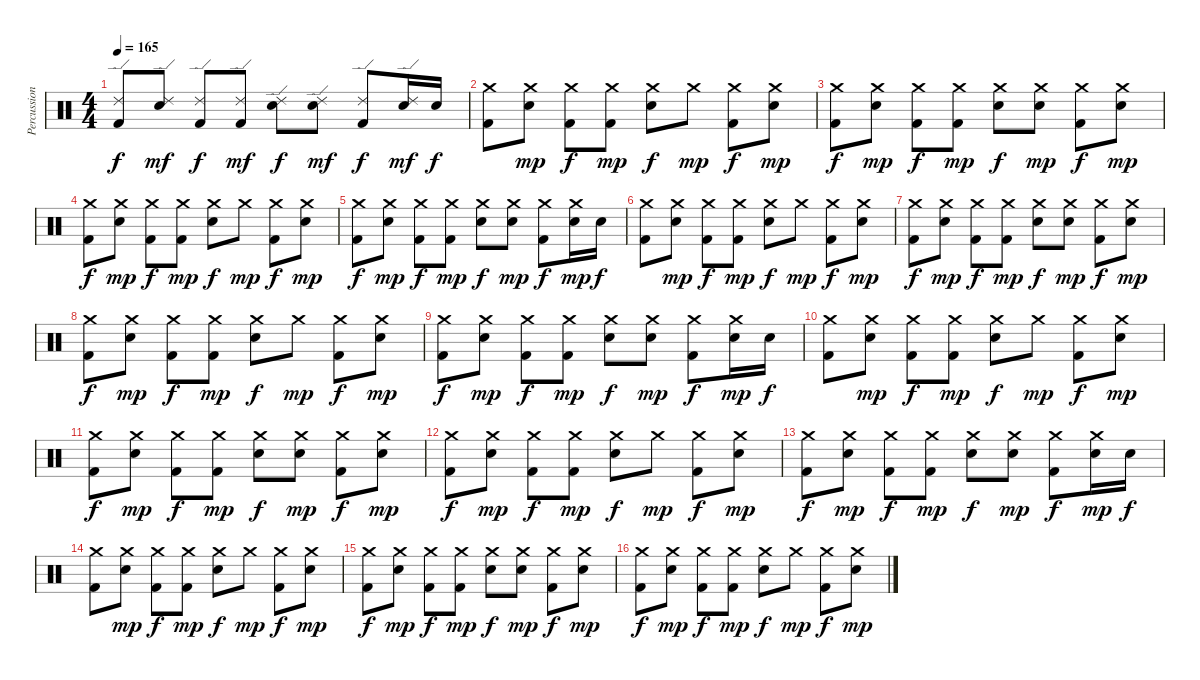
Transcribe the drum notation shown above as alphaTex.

\track ("Percussion" "Percussion") {instrument percussion}
\staff {score}
\articulation defaults
\ts (4 4)
\tempo 165
\clef neutral
\ks c
("Ride (edge) 2" "Kick (hit) 2").8{dy f} ("Ride (edge) 2" "Snare (hit) 2").8{dy mf} ("Ride (edge) 2" "Kick (hit) 2").8{dy f} ("Ride (edge) 2" "Kick (hit) 2").8{dy mf} ("Ride (edge) 2" "Snare (hit) 2").8{dy f} ("Ride (edge) 2" "Snare (hit) 2").8{dy mf} ("Ride (edge) 2" "Kick (hit) 2").8{dy f} ("Ride (edge) 2" "Snare (hit) 2").16{dy mf} "Snare (hit) 2".16{dy f} |
("Crash medium (hit)" "Kick (hit) 2").8 ("Crash medium (hit)" "Snare (hit) 2").8{dy mp} ("Crash medium (hit)" "Kick (hit) 2").8{dy f} ("Crash medium (hit)" "Kick (hit) 2").8{dy mp} ("Crash medium (hit)" "Snare (hit) 2").8{dy f} "Crash medium (hit)".8{dy mp} ("Crash medium (hit)" "Kick (hit) 2").8{dy f} ("Crash medium (hit)" "Snare (hit) 2").8{dy mp} |
("Crash medium (hit)" "Kick (hit) 2").8{dy f} ("Crash medium (hit)" "Snare (hit) 2").8{dy mp} ("Crash medium (hit)" "Kick (hit) 2").8{dy f} ("Crash medium (hit)" "Kick (hit) 2").8{dy mp} ("Crash medium (hit)" "Snare (hit) 2").8{dy f} ("Crash medium (hit)" "Snare (hit) 2").8{dy mp} ("Crash medium (hit)" "Kick (hit) 2").8{dy f} ("Crash medium (hit)" "Snare (hit) 2").8{dy mp} |
("Crash medium (hit)" "Kick (hit) 2").8{dy f} ("Crash medium (hit)" "Snare (hit) 2").8{dy mp} ("Crash medium (hit)" "Kick (hit) 2").8{dy f} ("Crash medium (hit)" "Kick (hit) 2").8{dy mp} ("Crash medium (hit)" "Snare (hit) 2").8{dy f} "Crash medium (hit)".8{dy mp} ("Crash medium (hit)" "Kick (hit) 2").8{dy f} ("Crash medium (hit)" "Snare (hit) 2").8{dy mp} |
("Crash medium (hit)" "Kick (hit) 2").8{dy f} ("Crash medium (hit)" "Snare (hit) 2").8{dy mp} ("Crash medium (hit)" "Kick (hit) 2").8{dy f} ("Crash medium (hit)" "Kick (hit) 2").8{dy mp} ("Crash medium (hit)" "Snare (hit) 2").8{dy f} ("Crash medium (hit)" "Snare (hit) 2").8{dy mp} ("Crash medium (hit)" "Kick (hit) 2").8{dy f} ("Crash medium (hit)" "Snare (hit) 2").16{dy mp} "Snare (hit) 2".16{dy f} |
("Crash medium (hit)" "Kick (hit) 2").8 ("Crash medium (hit)" "Snare (hit) 2").8{dy mp} ("Crash medium (hit)" "Kick (hit) 2").8{dy f} ("Crash medium (hit)" "Kick (hit) 2").8{dy mp} ("Crash medium (hit)" "Snare (hit) 2").8{dy f} "Crash medium (hit)".8{dy mp} ("Crash medium (hit)" "Kick (hit) 2").8{dy f} ("Crash medium (hit)" "Snare (hit) 2").8{dy mp} |
("Crash medium (hit)" "Kick (hit) 2").8{dy f} ("Crash medium (hit)" "Snare (hit) 2").8{dy mp} ("Crash medium (hit)" "Kick (hit) 2").8{dy f} ("Crash medium (hit)" "Kick (hit) 2").8{dy mp} ("Crash medium (hit)" "Snare (hit) 2").8{dy f} ("Crash medium (hit)" "Snare (hit) 2").8{dy mp} ("Crash medium (hit)" "Kick (hit) 2").8{dy f} ("Crash medium (hit)" "Snare (hit) 2").8{dy mp} |
("Crash medium (hit)" "Kick (hit) 2").8{dy f} ("Crash medium (hit)" "Snare (hit) 2").8{dy mp} ("Crash medium (hit)" "Kick (hit) 2").8{dy f} ("Crash medium (hit)" "Kick (hit) 2").8{dy mp} ("Crash medium (hit)" "Snare (hit) 2").8{dy f} "Crash medium (hit)".8{dy mp} ("Crash medium (hit)" "Kick (hit) 2").8{dy f} ("Crash medium (hit)" "Snare (hit) 2").8{dy mp} |
("Crash medium (hit)" "Kick (hit) 2").8{dy f} ("Crash medium (hit)" "Snare (hit) 2").8{dy mp} ("Crash medium (hit)" "Kick (hit) 2").8{dy f} ("Crash medium (hit)" "Kick (hit) 2").8{dy mp} ("Crash medium (hit)" "Snare (hit) 2").8{dy f} ("Crash medium (hit)" "Snare (hit) 2").8{dy mp} ("Crash medium (hit)" "Kick (hit) 2").8{dy f} ("Crash medium (hit)" "Snare (hit) 2").16{dy mp} "Snare (hit) 2".16{dy f} |
("Crash medium (hit)" "Kick (hit) 2").8 ("Crash medium (hit)" "Snare (hit) 2").8{dy mp} ("Crash medium (hit)" "Kick (hit) 2").8{dy f} ("Crash medium (hit)" "Kick (hit) 2").8{dy mp} ("Crash medium (hit)" "Snare (hit) 2").8{dy f} "Crash medium (hit)".8{dy mp} ("Crash medium (hit)" "Kick (hit) 2").8{dy f} ("Crash medium (hit)" "Snare (hit) 2").8{dy mp} |
("Crash medium (hit)" "Kick (hit) 2").8{dy f} ("Crash medium (hit)" "Snare (hit) 2").8{dy mp} ("Crash medium (hit)" "Kick (hit) 2").8{dy f} ("Crash medium (hit)" "Kick (hit) 2").8{dy mp} ("Crash medium (hit)" "Snare (hit) 2").8{dy f} ("Crash medium (hit)" "Snare (hit) 2").8{dy mp} ("Crash medium (hit)" "Kick (hit) 2").8{dy f} ("Crash medium (hit)" "Snare (hit) 2").8{dy mp} |
("Crash medium (hit)" "Kick (hit) 2").8{dy f} ("Crash medium (hit)" "Snare (hit) 2").8{dy mp} ("Crash medium (hit)" "Kick (hit) 2").8{dy f} ("Crash medium (hit)" "Kick (hit) 2").8{dy mp} ("Crash medium (hit)" "Snare (hit) 2").8{dy f} "Crash medium (hit)".8{dy mp} ("Crash medium (hit)" "Kick (hit) 2").8{dy f} ("Crash medium (hit)" "Snare (hit) 2").8{dy mp} |
("Crash medium (hit)" "Kick (hit) 2").8{dy f} ("Crash medium (hit)" "Snare (hit) 2").8{dy mp} ("Crash medium (hit)" "Kick (hit) 2").8{dy f} ("Crash medium (hit)" "Kick (hit) 2").8{dy mp} ("Crash medium (hit)" "Snare (hit) 2").8{dy f} ("Crash medium (hit)" "Snare (hit) 2").8{dy mp} ("Crash medium (hit)" "Kick (hit) 2").8{dy f} ("Crash medium (hit)" "Snare (hit) 2").16{dy mp} "Snare (hit) 2".16{dy f} |
("Crash medium (hit)" "Kick (hit) 2").8 ("Crash medium (hit)" "Snare (hit) 2").8{dy mp} ("Crash medium (hit)" "Kick (hit) 2").8{dy f} ("Crash medium (hit)" "Kick (hit) 2").8{dy mp} ("Crash medium (hit)" "Snare (hit) 2").8{dy f} "Crash medium (hit)".8{dy mp} ("Crash medium (hit)" "Kick (hit) 2").8{dy f} ("Crash medium (hit)" "Snare (hit) 2").8{dy mp} |
("Crash medium (hit)" "Kick (hit) 2").8{dy f} ("Crash medium (hit)" "Snare (hit) 2").8{dy mp} ("Crash medium (hit)" "Kick (hit) 2").8{dy f} ("Crash medium (hit)" "Kick (hit) 2").8{dy mp} ("Crash medium (hit)" "Snare (hit) 2").8{dy f} ("Crash medium (hit)" "Snare (hit) 2").8{dy mp} ("Crash medium (hit)" "Kick (hit) 2").8{dy f} ("Crash medium (hit)" "Snare (hit) 2").8{dy mp} |
("Crash medium (hit)" "Kick (hit) 2").8{dy f} ("Crash medium (hit)" "Snare (hit) 2").8{dy mp} ("Crash medium (hit)" "Kick (hit) 2").8{dy f} ("Crash medium (hit)" "Kick (hit) 2").8{dy mp} ("Crash medium (hit)" "Snare (hit) 2").8{dy f} "Crash medium (hit)".8{dy mp} ("Crash medium (hit)" "Kick (hit) 2").8{dy f} ("Crash medium (hit)" "Snare (hit) 2").8{dy mp}
